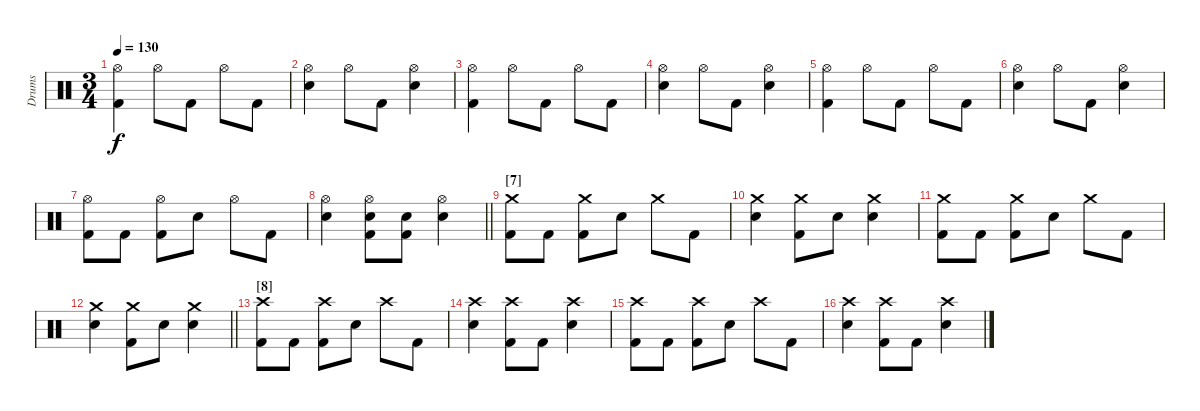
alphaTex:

\track ("Drums" "Drums") {instrument percussion}
\staff {score}
\articulation defaults
\ts (3 4)
\section ("" "")
\tempo 130
\clef neutral
\ks c
("Hi-Hat (open)" "Kick (hit) 2").4{dy f} "Hi-Hat (open)".8 "Kick (hit) 2".8 "Hi-Hat (open)".8 "Kick (hit) 2".8 |
("Hi-Hat (open)" "Electric Snare (hit)").4 "Hi-Hat (open)".8 "Kick (hit) 2".8 ("Hi-Hat (open)" "Electric Snare (hit)").4 |
("Hi-Hat (open)" "Kick (hit) 2").4 "Hi-Hat (open)".8 "Kick (hit) 2".8 "Hi-Hat (open)".8 "Kick (hit) 2".8 |
("Hi-Hat (open)" "Electric Snare (hit)").4 "Hi-Hat (open)".8 "Kick (hit) 2".8 ("Hi-Hat (open)" "Electric Snare (hit)").4 |
("Hi-Hat (open)" "Kick (hit) 2").4 "Hi-Hat (open)".8 "Kick (hit) 2".8 "Hi-Hat (open)".8 "Kick (hit) 2".8 |
("Hi-Hat (open)" "Electric Snare (hit)").4 "Hi-Hat (open)".8 "Kick (hit) 2".8 ("Hi-Hat (open)" "Electric Snare (hit)").4 |
("Hi-Hat (open)" "Kick (hit) 2").8 "Kick (hit) 2".8 ("Hi-Hat (open)" "Kick (hit) 2").8 "Electric Snare (hit)".8 "Hi-Hat (open)".8 "Kick (hit) 2".8 |
\barLineRight lightlight
("Hi-Hat (open)" "Electric Snare (hit)").4 ("Hi-Hat (open)" "Electric Snare (hit)" "Kick (hit) 2").8 ("Electric Snare (hit)" "Kick (hit) 2").8 ("Hi-Hat (open)" "Electric Snare (hit)").4 |
\section ("" "[7]")
("Crash medium (hit)" "Kick (hit) 2").8 "Kick (hit) 2".8 ("Crash medium (hit)" "Kick (hit) 2").8 "Electric Snare (hit)".8 "Crash medium (hit)".8 "Kick (hit) 2".8 |
("Crash medium (hit)" "Electric Snare (hit)").4 ("Crash medium (hit)" "Kick (hit) 2").8 "Electric Snare (hit)".8 ("Crash medium (hit)" "Electric Snare (hit)").4 |
("Crash medium (hit)" "Kick (hit) 2").8 "Kick (hit) 2".8 ("Crash medium (hit)" "Kick (hit) 2").8 "Electric Snare (hit)".8 "Crash medium (hit)".8 "Kick (hit) 2".8 |
\barLineRight lightlight
("Crash medium (hit)" "Electric Snare (hit)").4 ("Crash medium (hit)" "Kick (hit) 2").8 "Electric Snare (hit)".8 ("Crash medium (hit)" "Electric Snare (hit)").4 |
\section ("" "[8]")
("Crash high (hit)" "Kick (hit) 2").8 "Kick (hit) 2".8 ("Crash high (hit)" "Kick (hit) 2").8 "Electric Snare (hit)".8 "Crash high (hit)".8 "Kick (hit) 2".8 |
("Crash high (hit)" "Electric Snare (hit)").4 ("Crash high (hit)" "Kick (hit) 2").8 "Kick (hit) 2".8 ("Crash high (hit)" "Electric Snare (hit)").4 |
("Crash high (hit)" "Kick (hit) 2").8 "Kick (hit) 2".8 ("Crash high (hit)" "Kick (hit) 2").8 "Electric Snare (hit)".8 "Crash high (hit)".8 "Kick (hit) 2".8 |
("Crash high (hit)" "Electric Snare (hit)").4 ("Crash high (hit)" "Kick (hit) 2").8 "Kick (hit) 2".8 ("Crash high (hit)" "Electric Snare (hit)").4
